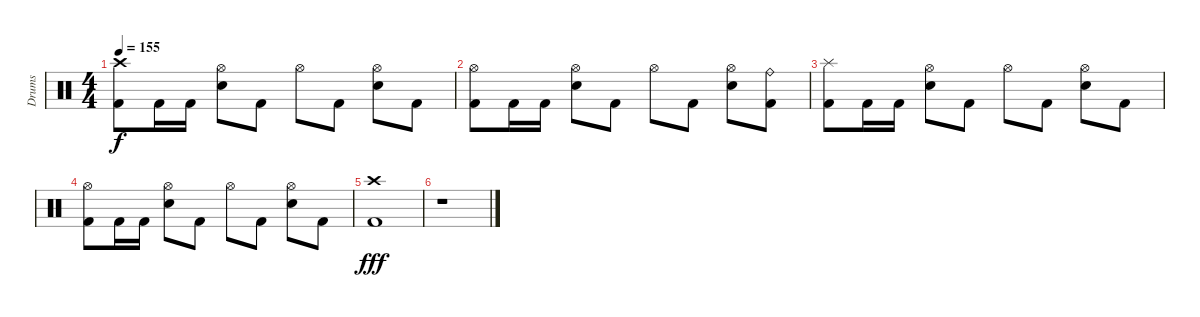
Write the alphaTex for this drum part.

\track ("Drums" "Drums") {instrument percussion}
\staff {score}
\articulation defaults
\ts (4 4)
\tempo 155
\clef neutral
\ks c
("Crash high (hit)" "Kick (hit) 2").8{dy f} "Kick (hit) 2".16 "Kick (hit) 2".16 ("Hi-Hat (open)" "Electric Snare (hit)").8 "Kick (hit) 2".8 "Hi-Hat (open)".8 "Kick (hit) 2".8 ("Hi-Hat (open)" "Electric Snare (hit)").8 "Kick (hit) 2".8 |
("Hi-Hat (open)" "Kick (hit) 2").8 "Kick (hit) 2".16 "Kick (hit) 2".16 ("Hi-Hat (open)" "Electric Snare (hit)").8 "Kick (hit) 2".8 "Hi-Hat (open)".8 "Kick (hit) 2".8 ("Hi-Hat (open)" "Electric Snare (hit)").8 ("Ride (bell)" "Kick (hit) 2").8 |
("Splash (hit)" "Kick (hit) 2").8 "Kick (hit) 2".16 "Kick (hit) 2".16 ("Hi-Hat (open)" "Electric Snare (hit)").8 "Kick (hit) 2".8 "Hi-Hat (open)".8 "Kick (hit) 2".8 ("Hi-Hat (open)" "Electric Snare (hit)").8 "Kick (hit) 2".8 |
("Hi-Hat (open)" "Kick (hit) 2").8 "Kick (hit) 2".16 "Kick (hit) 2".16 ("Hi-Hat (open)" "Electric Snare (hit)").8 "Kick (hit) 2".8 "Hi-Hat (open)".8 "Kick (hit) 2".8 ("Hi-Hat (open)" "Electric Snare (hit)").8 "Kick (hit) 2".8 |
("Crash high (hit)" "Kick (hit) 2").1{dy fff} |
r.1
